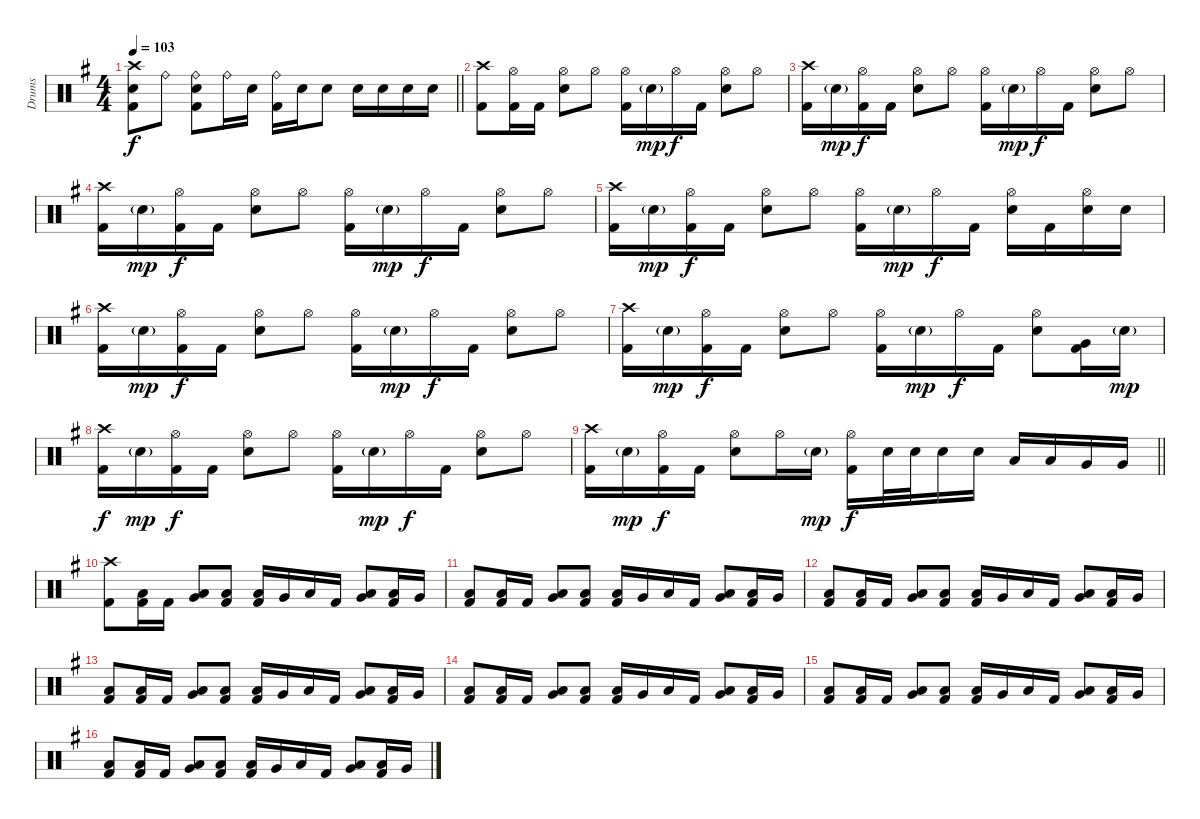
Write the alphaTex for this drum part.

\track ("Drums" "Drums") {instrument percussion}
\staff {score}
\articulation defaults
\ts (4 4)
\tempo 103
\clef neutral
\barLineRight lightlight
\ks eminor
("Crash high (hit)" "Snare (hit) 2" "Kick (hit) 2").8{dy f} "Ride (bell)".8 ("Ride (bell)" "Snare (hit) 2" "Kick (hit) 2").8 "Ride (bell)".16 "Snare (hit) 2".16 ("Ride (bell)" "Kick (hit) 2").16 "Snare (hit) 2".16 "Snare (hit) 2".8 "Snare (hit) 2".16 "Snare (hit) 2".16 "Snare (hit) 2".16 "Snare (hit) 2".16 |
("Crash high (hit)" "Kick (hit) 2").8 ("Hi-Hat (open)" "Kick (hit) 2").16 "Kick (hit) 2".16 ("Hi-Hat (open)" "Snare (hit) 2").8 "Hi-Hat (open)".8 ("Hi-Hat (open)" "Kick (hit) 2").16 "Snare (hit) 2"{g}.16{dy mp} "Hi-Hat (open)".16{dy f} "Kick (hit) 2".16 ("Hi-Hat (open)" "Snare (hit) 2").8 "Hi-Hat (open)".8 |
("Crash high (hit)" "Kick (hit) 2").16 "Snare (hit) 2"{g}.16{dy mp} ("Hi-Hat (open)" "Kick (hit) 2").16{dy f} "Kick (hit) 2".16 ("Hi-Hat (open)" "Snare (hit) 2").8 "Hi-Hat (open)".8 ("Hi-Hat (open)" "Kick (hit) 2").16 "Snare (hit) 2"{g}.16{dy mp} "Hi-Hat (open)".16{dy f} "Kick (hit) 2".16 ("Hi-Hat (open)" "Snare (hit) 2").8 "Hi-Hat (open)".8 |
("Crash high (hit)" "Kick (hit) 2").16 "Snare (hit) 2"{g}.16{dy mp} ("Hi-Hat (open)" "Kick (hit) 2").16{dy f} "Kick (hit) 2".16 ("Hi-Hat (open)" "Snare (hit) 2").8 "Hi-Hat (open)".8 ("Hi-Hat (open)" "Kick (hit) 2").16 "Snare (hit) 2"{g}.16{dy mp} "Hi-Hat (open)".16{dy f} "Kick (hit) 2".16 ("Hi-Hat (open)" "Snare (hit) 2").8 "Hi-Hat (open)".8 |
("Crash high (hit)" "Kick (hit) 2").16 "Snare (hit) 2"{g}.16{dy mp} ("Hi-Hat (open)" "Kick (hit) 2").16{dy f} "Kick (hit) 2".16 ("Hi-Hat (open)" "Snare (hit) 2").8 "Hi-Hat (open)".8 ("Hi-Hat (open)" "Kick (hit) 2").16 "Snare (hit) 2"{g}.16{dy mp} "Hi-Hat (open)".16{dy f} "Kick (hit) 2".16 ("Hi-Hat (open)" "Snare (hit) 2").16 "Kick (hit) 2".16 ("Hi-Hat (open)" "Snare (hit) 2").16 "Snare (hit) 2".16 |
("Crash high (hit)" "Kick (hit) 2").16 "Snare (hit) 2"{g}.16{dy mp} ("Hi-Hat (open)" "Kick (hit) 2").16{dy f} "Kick (hit) 2".16 ("Hi-Hat (open)" "Snare (hit) 2").8 "Hi-Hat (open)".8 ("Hi-Hat (open)" "Kick (hit) 2").16 "Snare (hit) 2"{g}.16{dy mp} "Hi-Hat (open)".16{dy f} "Kick (hit) 2".16 ("Hi-Hat (open)" "Snare (hit) 2").8 "Hi-Hat (open)".8 |
("Crash high (hit)" "Kick (hit) 2").16 "Snare (hit) 2"{g}.16{dy mp} ("Hi-Hat (open)" "Kick (hit) 2").16{dy f} "Kick (hit) 2".16 ("Hi-Hat (open)" "Snare (hit) 2").8 "Hi-Hat (open)".8 ("Hi-Hat (open)" "Kick (hit) 2").16 "Snare (hit) 2"{g}.16{dy mp} "Hi-Hat (open)".16{dy f} "Kick (hit) 2".16 ("Hi-Hat (open)" "Snare (hit) 2").8 ("Very Low Tom (hit)" "Kick (hit) 2").16 "Snare (hit) 2"{g}.16{dy mp} |
("Crash high (hit)" "Kick (hit) 2").16{dy f} "Snare (hit) 2"{g}.16{dy mp} ("Hi-Hat (open)" "Kick (hit) 2").16{dy f} "Kick (hit) 2".16 ("Hi-Hat (open)" "Snare (hit) 2").8 "Hi-Hat (open)".8 ("Hi-Hat (open)" "Kick (hit) 2").16 "Snare (hit) 2"{g}.16{dy mp} "Hi-Hat (open)".16{dy f} "Kick (hit) 2".16 ("Hi-Hat (open)" "Snare (hit) 2").8 "Hi-Hat (open)".8 |
\barLineRight lightlight
("Crash high (hit)" "Kick (hit) 2").16 "Snare (hit) 2"{g}.16{dy mp} ("Hi-Hat (open)" "Kick (hit) 2").16{dy f} "Kick (hit) 2".16 ("Hi-Hat (open)" "Snare (hit) 2").8 "Hi-Hat (open)".16 "Snare (hit) 2"{g}.16{dy mp} ("Hi-Hat (open)" "Kick (hit) 2").16{dy f} "Snare (hit) 2".32 "Snare (hit) 2".32 "Snare (hit) 2".16 "Snare (hit) 2".16 "Low Tom (hit)".16 "Low Tom (hit)".16 "Very Low Tom (hit)".16 "Very Low Tom (hit)".16 |
("Crash high (hit)" "Kick (hit) 2").8 ("Low Floor Tom (hit)" "Kick (hit) 2").16 "Kick (hit) 2".16 ("Very Low Tom (hit)" "Low Floor Tom (hit)").8 ("Low Floor Tom (hit)" "Kick (hit) 2").8 ("Low Floor Tom (hit)" "Kick (hit) 2").16 "Very Low Tom (hit)".16 "Low Floor Tom (hit)".16 "Kick (hit) 2".16 ("Very Low Tom (hit)" "Low Floor Tom (hit)").8 ("Low Floor Tom (hit)" "Kick (hit) 2").16 "Very Low Tom (hit)".16 |
("Low Floor Tom (hit)" "Kick (hit) 2").8 ("Low Floor Tom (hit)" "Kick (hit) 2").16 "Kick (hit) 2".16 ("Very Low Tom (hit)" "Low Floor Tom (hit)").8 ("Low Floor Tom (hit)" "Kick (hit) 2").8 ("Low Floor Tom (hit)" "Kick (hit) 2").16 "Very Low Tom (hit)".16 "Low Floor Tom (hit)".16 "Kick (hit) 2".16 ("Very Low Tom (hit)" "Low Floor Tom (hit)").8 ("Low Floor Tom (hit)" "Kick (hit) 2").16 "Very Low Tom (hit)".16 |
("Low Floor Tom (hit)" "Kick (hit) 2").8 ("Low Floor Tom (hit)" "Kick (hit) 2").16 "Kick (hit) 2".16 ("Very Low Tom (hit)" "Low Floor Tom (hit)").8 ("Low Floor Tom (hit)" "Kick (hit) 2").8 ("Low Floor Tom (hit)" "Kick (hit) 2").16 "Very Low Tom (hit)".16 "Low Floor Tom (hit)".16 "Kick (hit) 2".16 ("Very Low Tom (hit)" "Low Floor Tom (hit)").8 ("Low Floor Tom (hit)" "Kick (hit) 2").16 "Very Low Tom (hit)".16 |
("Low Floor Tom (hit)" "Kick (hit) 2").8 ("Low Floor Tom (hit)" "Kick (hit) 2").16 "Kick (hit) 2".16 ("Very Low Tom (hit)" "Low Floor Tom (hit)").8 ("Low Floor Tom (hit)" "Kick (hit) 2").8 ("Low Floor Tom (hit)" "Kick (hit) 2").16 "Very Low Tom (hit)".16 "Low Floor Tom (hit)".16 "Kick (hit) 2".16 ("Very Low Tom (hit)" "Low Floor Tom (hit)").8 ("Low Floor Tom (hit)" "Kick (hit) 2").16 "Very Low Tom (hit)".16 |
("Low Floor Tom (hit)" "Kick (hit) 2").8 ("Low Floor Tom (hit)" "Kick (hit) 2").16 "Kick (hit) 2".16 ("Very Low Tom (hit)" "Low Floor Tom (hit)").8 ("Low Floor Tom (hit)" "Kick (hit) 2").8 ("Low Floor Tom (hit)" "Kick (hit) 2").16 "Very Low Tom (hit)".16 "Low Floor Tom (hit)".16 "Kick (hit) 2".16 ("Very Low Tom (hit)" "Low Floor Tom (hit)").8 ("Low Floor Tom (hit)" "Kick (hit) 2").16 "Very Low Tom (hit)".16 |
("Low Floor Tom (hit)" "Kick (hit) 2").8 ("Low Floor Tom (hit)" "Kick (hit) 2").16 "Kick (hit) 2".16 ("Very Low Tom (hit)" "Low Floor Tom (hit)").8 ("Low Floor Tom (hit)" "Kick (hit) 2").8 ("Low Floor Tom (hit)" "Kick (hit) 2").16 "Very Low Tom (hit)".16 "Low Floor Tom (hit)".16 "Kick (hit) 2".16 ("Very Low Tom (hit)" "Low Floor Tom (hit)").8 ("Low Floor Tom (hit)" "Kick (hit) 2").16 "Very Low Tom (hit)".16 |
("Low Floor Tom (hit)" "Kick (hit) 2").8 ("Low Floor Tom (hit)" "Kick (hit) 2").16 "Kick (hit) 2".16 ("Very Low Tom (hit)" "Low Floor Tom (hit)").8 ("Low Floor Tom (hit)" "Kick (hit) 2").8 ("Low Floor Tom (hit)" "Kick (hit) 2").16 "Very Low Tom (hit)".16 "Low Floor Tom (hit)".16 "Kick (hit) 2".16 ("Very Low Tom (hit)" "Low Floor Tom (hit)").8 ("Low Floor Tom (hit)" "Kick (hit) 2").16 "Very Low Tom (hit)".16
